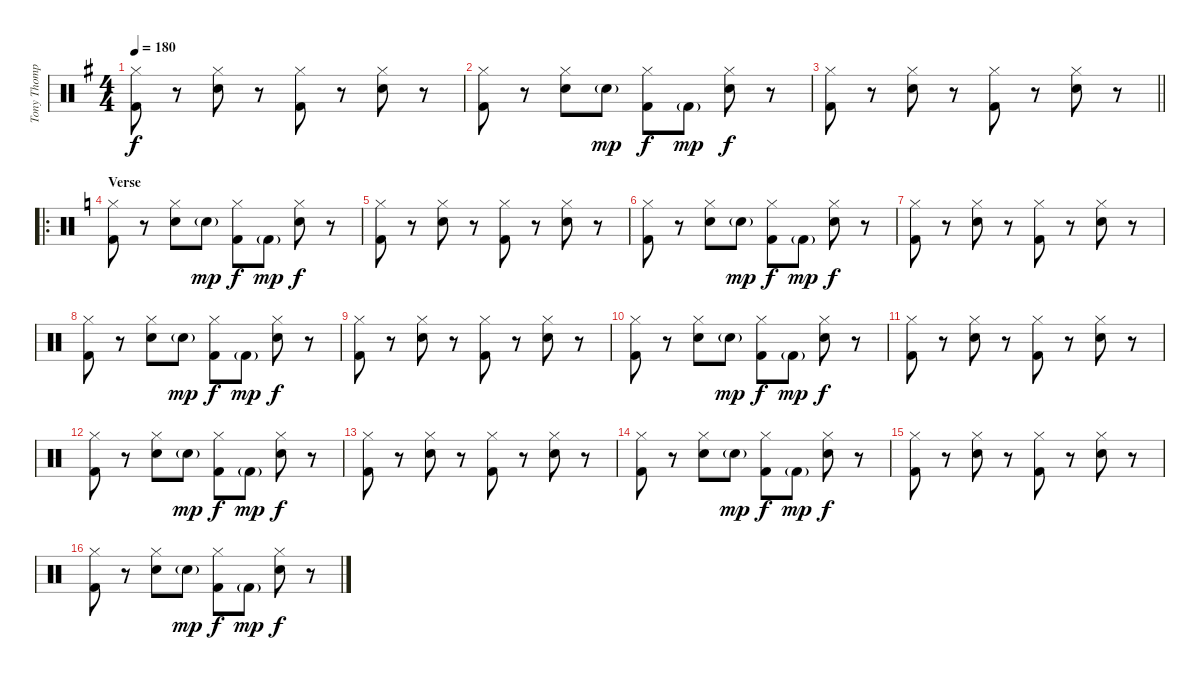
\track ("Tony Thompson (Drums)" "Tony Thomp") {instrument percussion}
\staff {score}
\articulation defaults
\ts (4 4)
\tempo 180
\clef neutral
\ks g
("Hi-Hat (closed)" "Kick (hit) 2").8{dy f} r.8 ("Hi-Hat (closed)" "Electric Snare (hit)").8 r.8 ("Hi-Hat (closed)" "Kick (hit) 2").8 r.8 ("Hi-Hat (closed)" "Electric Snare (hit)").8 r.8 |
("Hi-Hat (closed)" "Kick (hit) 2").8 r.8 ("Hi-Hat (closed)" "Electric Snare (hit)").8 "Electric Snare (hit)"{g}.8{dy mp} ("Hi-Hat (closed)" "Kick (hit) 2").8{dy f} "Kick (hit) 2"{g}.8{dy mp} ("Hi-Hat (closed)" "Electric Snare (hit)").8{dy f} r.8 |
\barLineRight lightlight
("Hi-Hat (closed)" "Kick (hit) 2").8 r.8 ("Hi-Hat (closed)" "Electric Snare (hit)").8 r.8 ("Hi-Hat (closed)" "Kick (hit) 2").8 r.8 ("Hi-Hat (closed)" "Electric Snare (hit)").8 r.8 |
\ro
\section ("" "Verse")
\ks c
("Hi-Hat (closed)" "Kick (hit) 2").8 r.8 ("Hi-Hat (closed)" "Electric Snare (hit)").8 "Electric Snare (hit)"{g}.8{dy mp} ("Hi-Hat (closed)" "Kick (hit) 2").8{dy f} "Kick (hit) 2"{g}.8{dy mp} ("Hi-Hat (closed)" "Electric Snare (hit)").8{dy f} r.8 |
("Hi-Hat (closed)" "Kick (hit) 2").8 r.8 ("Hi-Hat (closed)" "Electric Snare (hit)").8 r.8 ("Hi-Hat (closed)" "Kick (hit) 2").8 r.8 ("Hi-Hat (closed)" "Electric Snare (hit)").8 r.8 |
("Hi-Hat (closed)" "Kick (hit) 2").8 r.8 ("Hi-Hat (closed)" "Electric Snare (hit)").8 "Electric Snare (hit)"{g}.8{dy mp} ("Hi-Hat (closed)" "Kick (hit) 2").8{dy f} "Kick (hit) 2"{g}.8{dy mp} ("Hi-Hat (closed)" "Electric Snare (hit)").8{dy f} r.8 |
("Hi-Hat (closed)" "Kick (hit) 2").8 r.8 ("Hi-Hat (closed)" "Electric Snare (hit)").8 r.8 ("Hi-Hat (closed)" "Kick (hit) 2").8 r.8 ("Hi-Hat (closed)" "Electric Snare (hit)").8 r.8 |
("Hi-Hat (closed)" "Kick (hit) 2").8 r.8 ("Hi-Hat (closed)" "Electric Snare (hit)").8 "Electric Snare (hit)"{g}.8{dy mp} ("Hi-Hat (closed)" "Kick (hit) 2").8{dy f} "Kick (hit) 2"{g}.8{dy mp} ("Hi-Hat (closed)" "Electric Snare (hit)").8{dy f} r.8 |
("Hi-Hat (closed)" "Kick (hit) 2").8 r.8 ("Hi-Hat (closed)" "Electric Snare (hit)").8 r.8 ("Hi-Hat (closed)" "Kick (hit) 2").8 r.8 ("Hi-Hat (closed)" "Electric Snare (hit)").8 r.8 |
("Hi-Hat (closed)" "Kick (hit) 2").8 r.8 ("Hi-Hat (closed)" "Electric Snare (hit)").8 "Electric Snare (hit)"{g}.8{dy mp} ("Hi-Hat (closed)" "Kick (hit) 2").8{dy f} "Kick (hit) 2"{g}.8{dy mp} ("Hi-Hat (closed)" "Electric Snare (hit)").8{dy f} r.8 |
("Hi-Hat (closed)" "Kick (hit) 2").8 r.8 ("Hi-Hat (closed)" "Electric Snare (hit)").8 r.8 ("Hi-Hat (closed)" "Kick (hit) 2").8 r.8 ("Hi-Hat (closed)" "Electric Snare (hit)").8 r.8 |
("Hi-Hat (closed)" "Kick (hit) 2").8 r.8 ("Hi-Hat (closed)" "Electric Snare (hit)").8 "Electric Snare (hit)"{g}.8{dy mp} ("Hi-Hat (closed)" "Kick (hit) 2").8{dy f} "Kick (hit) 2"{g}.8{dy mp} ("Hi-Hat (closed)" "Electric Snare (hit)").8{dy f} r.8 |
("Hi-Hat (closed)" "Kick (hit) 2").8 r.8 ("Hi-Hat (closed)" "Electric Snare (hit)").8 r.8 ("Hi-Hat (closed)" "Kick (hit) 2").8 r.8 ("Hi-Hat (closed)" "Electric Snare (hit)").8 r.8 |
("Hi-Hat (closed)" "Kick (hit) 2").8 r.8 ("Hi-Hat (closed)" "Electric Snare (hit)").8 "Electric Snare (hit)"{g}.8{dy mp} ("Hi-Hat (closed)" "Kick (hit) 2").8{dy f} "Kick (hit) 2"{g}.8{dy mp} ("Hi-Hat (closed)" "Electric Snare (hit)").8{dy f} r.8 |
("Hi-Hat (closed)" "Kick (hit) 2").8 r.8 ("Hi-Hat (closed)" "Electric Snare (hit)").8 r.8 ("Hi-Hat (closed)" "Kick (hit) 2").8 r.8 ("Hi-Hat (closed)" "Electric Snare (hit)").8 r.8 |
("Hi-Hat (closed)" "Kick (hit) 2").8 r.8 ("Hi-Hat (closed)" "Electric Snare (hit)").8 "Electric Snare (hit)"{g}.8{dy mp} ("Hi-Hat (closed)" "Kick (hit) 2").8{dy f} "Kick (hit) 2"{g}.8{dy mp} ("Hi-Hat (closed)" "Electric Snare (hit)").8{dy f} r.8
